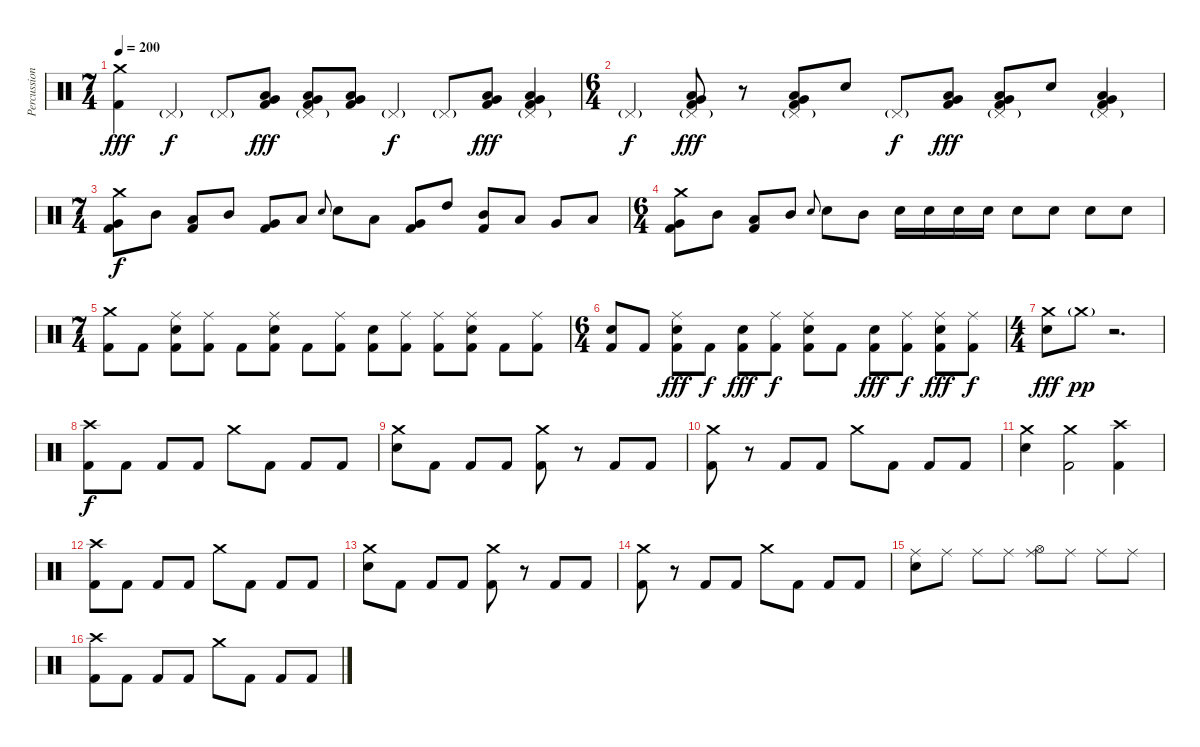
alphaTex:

\track ("Percussion" "Percussion") {instrument percussion}
\staff {score}
\articulation defaults
\ts (7 4)
\tempo 200
\clef neutral
\ks c
("Crash medium (hit)" "Kick (hit) 2").4{dy fff} "Pedal Hi-Hat (hit)"{g}.4{dy f} "Pedal Hi-Hat (hit)"{g}.8 ("Very Low Tom (hit)" "Low Floor Tom (hit)" "Kick (hit) 2").8{dy fff} ("Pedal Hi-Hat (hit)"{g} "Very Low Tom (hit)" "Low Floor Tom (hit)" "Kick (hit) 2").8 ("Very Low Tom (hit)" "Low Floor Tom (hit)" "Kick (hit) 2").8 "Pedal Hi-Hat (hit)"{g}.4{dy f} "Pedal Hi-Hat (hit)"{g}.8 ("Very Low Tom (hit)" "Low Floor Tom (hit)" "Kick (hit) 2").8{dy fff} ("Pedal Hi-Hat (hit)"{g} "Very Low Tom (hit)" "Low Floor Tom (hit)" "Kick (hit) 2").4 |
\ts (6 4)
"Pedal Hi-Hat (hit)"{g}.4{dy f} ("Pedal Hi-Hat (hit)"{g} "Very Low Tom (hit)" "Low Floor Tom (hit)" "Kick (hit) 2").8{dy fff} r.8 ("Pedal Hi-Hat (hit)"{g} "Very Low Tom (hit)" "Low Floor Tom (hit)" "Kick (hit) 2").8 "Electric Snare (hit)".8 "Pedal Hi-Hat (hit)"{g}.8{dy f} ("Very Low Tom (hit)" "Low Floor Tom (hit)" "Kick (hit) 2").8{dy fff} ("Pedal Hi-Hat (hit)"{g} "Very Low Tom (hit)" "Low Floor Tom (hit)" "Kick (hit) 2").8 "Electric Snare (hit)".8 ("Pedal Hi-Hat (hit)"{g} "Very Low Tom (hit)" "Low Floor Tom (hit)" "Kick (hit) 2").4 |
\ts (7 4)
("Crash medium (hit)" "Very Low Tom (hit)" "Kick (hit) 2").8{dy f} "Mid Tom (hit)".8 ("Low Tom (hit)" "Kick (hit) 2").8 "Mid Tom (hit)".8 ("Very Low Tom (hit)" "Kick (hit) 2").8 "Low Tom (hit)".8 "Electric Snare (hit)".8{gr onbeat} "Electric Snare (hit)".8 "Low Tom (hit)".8 ("Very Low Tom (hit)" "Kick (hit) 2").8 "High Tom (hit)".8 ("Mid Tom (hit)" "Kick (hit) 2").8 "Low Tom (hit)".8 "Very Low Tom (hit)".8 "Low Floor Tom (hit)".8 |
\ts (6 4)
("Crash medium (hit)" "Very Low Tom (hit)" "Kick (hit) 2").8 "Mid Tom (hit)".8 ("Low Tom (hit)" "Kick (hit) 2").8 "Mid Tom (hit)".8 "Electric Snare (hit)".8{gr onbeat} "Electric Snare (hit)".8 "Mid Tom (hit)".8 "Electric Snare (hit)".16 "Electric Snare (hit)".16 "Electric Snare (hit)".16 "Electric Snare (hit)".16 "Electric Snare (hit)".8 "Electric Snare (hit)".8 "Electric Snare (hit)".8 "Electric Snare (hit)".8 |
\ts (7 4)
("Crash medium (hit)" "Kick (hit) 2").8 "Kick (hit) 2".8 ("Ride (middle)" "Electric Snare (hit)" "Kick (hit) 2").8 ("Ride (middle)" "Kick (hit) 2").8 "Kick (hit) 2".8 ("Ride (middle)" "Electric Snare (hit)" "Kick (hit) 2").8 "Kick (hit) 2".8 ("Ride (middle)" "Kick (hit) 2").8 ("Electric Snare (hit)" "Kick (hit) 2").8 ("Ride (middle)" "Kick (hit) 2").8 ("Ride (middle)" "Kick (hit) 2").8 ("Ride (middle)" "Electric Snare (hit)" "Kick (hit) 2").8 "Kick (hit) 2".8 ("Ride (middle)" "Kick (hit) 2").8 |
\ts (6 4)
("Electric Snare (hit)" "Kick (hit) 2").8 "Kick (hit) 2".8 ("Ride (middle)" "Electric Snare (hit)" "Kick (hit) 2").8{dy fff} "Kick (hit) 2".8{dy f} ("Electric Snare (hit)" "Kick (hit) 2").8{dy fff} ("Ride (middle)" "Kick (hit) 2").8{dy f} ("Ride (middle)" "Electric Snare (hit)" "Kick (hit) 2").8 "Kick (hit) 2".8 ("Electric Snare (hit)" "Kick (hit) 2").8{dy fff} ("Ride (middle)" "Kick (hit) 2").8{dy f} ("Ride (middle)" "Electric Snare (hit)" "Kick (hit) 2").8{dy fff} ("Ride (middle)" "Kick (hit) 2").8{dy f} |
\ts (4 4)
("Crash medium (hit)" "Electric Snare (hit)").8{dy fff} "Crash medium (hit)"{g}.8{dy pp} r.2{d} |
("Crash high (hit)" "Kick (hit) 2").8{dy f} "Kick (hit) 2".8 "Kick (hit) 2".8 "Kick (hit) 2".8 "Crash medium (hit)".8 "Kick (hit) 2".8 "Kick (hit) 2".8 "Kick (hit) 2".8 |
("Crash medium (hit)" "Electric Snare (hit)").8 "Kick (hit) 2".8 "Kick (hit) 2".8 "Kick (hit) 2".8 ("Crash medium (hit)" "Kick (hit) 2").8 r.8 "Kick (hit) 2".8 "Kick (hit) 2".8 |
("Crash medium (hit)" "Kick (hit) 2").8 r.8 "Kick (hit) 2".8 "Kick (hit) 2".8 "Crash medium (hit)".8 "Kick (hit) 2".8 "Kick (hit) 2".8 "Kick (hit) 2".8 |
("Crash medium (hit)" "Electric Snare (hit)").4 ("Crash medium (hit)" "Kick (hit) 2").2 ("Crash high (hit)" "Kick (hit) 2").4 |
("Crash high (hit)" "Kick (hit) 2").8 "Kick (hit) 2".8 "Kick (hit) 2".8 "Kick (hit) 2".8 "Crash medium (hit)".8 "Kick (hit) 2".8 "Kick (hit) 2".8 "Kick (hit) 2".8 |
("Crash medium (hit)" "Electric Snare (hit)").8 "Kick (hit) 2".8 "Kick (hit) 2".8 "Kick (hit) 2".8 ("Crash medium (hit)" "Kick (hit) 2").8 r.8 "Kick (hit) 2".8 "Kick (hit) 2".8 |
("Crash medium (hit)" "Kick (hit) 2").8 r.8 "Kick (hit) 2".8 "Kick (hit) 2".8 "Crash medium (hit)".8 "Kick (hit) 2".8 "Kick (hit) 2".8 "Kick (hit) 2".8 |
("Ride (middle)" "Electric Snare (hit)").8 "Ride (middle)".8 "Ride (middle)".8 "Ride (middle)".8 ("Ride (middle)" "Hi-Hat (open)").8 "Ride (middle)".8 "Ride (middle)".8 "Ride (middle)".8 |
("Crash high (hit)" "Kick (hit) 2").8 "Kick (hit) 2".8 "Kick (hit) 2".8 "Kick (hit) 2".8 "Crash medium (hit)".8 "Kick (hit) 2".8 "Kick (hit) 2".8 "Kick (hit) 2".8
